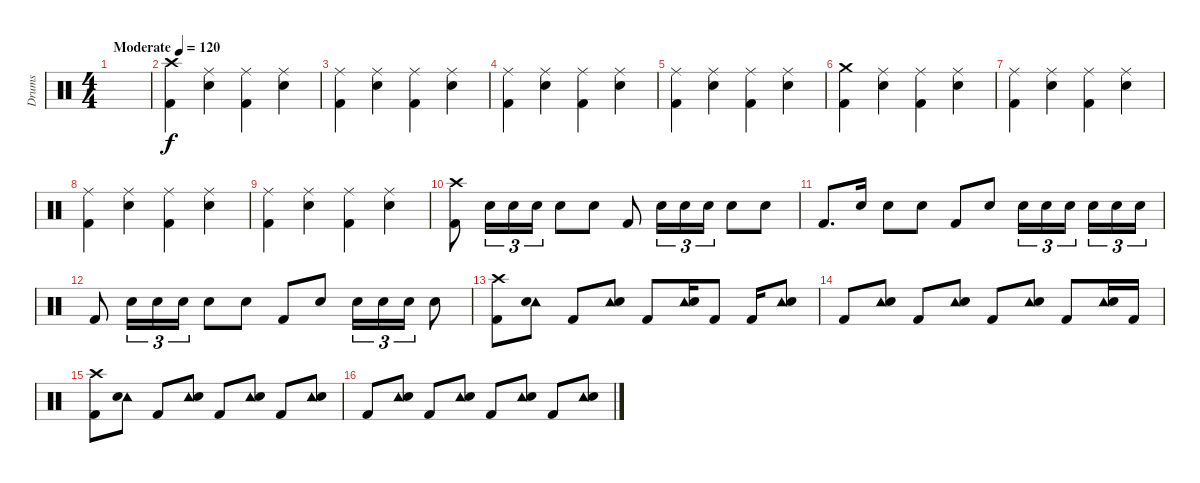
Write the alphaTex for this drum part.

\track ("Drums" "Drums") {instrument percussion}
\staff {score}
\articulation defaults
\ts (4 4)
\tempo (120 "Moderate")
\clef neutral
\ks c
|
("Crash high (hit)" "Kick (hit) 2").4 ("Ride (middle)" "Electric Snare (hit)").4 ("Ride (middle)" "Kick (hit) 2").4 ("Ride (middle)" "Electric Snare (hit)").4 |
("Ride (middle)" "Kick (hit) 2").4 ("Ride (middle)" "Electric Snare (hit)").4 ("Ride (middle)" "Kick (hit) 2").4 ("Ride (middle)" "Electric Snare (hit)").4 |
("Ride (middle)" "Kick (hit) 2").4 ("Ride (middle)" "Electric Snare (hit)").4 ("Ride (middle)" "Kick (hit) 2").4 ("Ride (middle)" "Electric Snare (hit)").4 |
("Ride (middle)" "Kick (hit) 2").4 ("Ride (middle)" "Electric Snare (hit)").4 ("Ride (middle)" "Kick (hit) 2").4 ("Ride (middle)" "Electric Snare (hit)").4 |
("Crash medium (hit)" "Kick (hit) 2").4 ("Ride (middle)" "Electric Snare (hit)").4 ("Ride (middle)" "Kick (hit) 2").4 ("Ride (middle)" "Electric Snare (hit)").4 |
("Ride (middle)" "Kick (hit) 2").4 ("Ride (middle)" "Electric Snare (hit)").4 ("Ride (middle)" "Kick (hit) 2").4 ("Ride (middle)" "Electric Snare (hit)").4 |
("Ride (middle)" "Kick (hit) 2").4 ("Ride (middle)" "Electric Snare (hit)").4 ("Ride (middle)" "Kick (hit) 2").4 ("Ride (middle)" "Electric Snare (hit)").4 |
("Ride (middle)" "Kick (hit) 2").4 ("Ride (middle)" "Electric Snare (hit)").4 ("Ride (middle)" "Kick (hit) 2").4 ("Ride (middle)" "Electric Snare (hit)").4 |
("Crash high (hit)" "Kick (hit) 2").8 "Electric Snare (hit)".16{tu (3 2)} "Electric Snare (hit)".16{tu (3 2)} "Electric Snare (hit)".16{tu (3 2)} "Electric Snare (hit)".8 "Electric Snare (hit)".8 "Kick (hit) 2".8 "Electric Snare (hit)".16{tu (3 2)} "Electric Snare (hit)".16{tu (3 2)} "Electric Snare (hit)".16{tu (3 2)} "Electric Snare (hit)".8 "Electric Snare (hit)".8 |
"Kick (hit) 2".8{d} "Electric Snare (hit)".16 "Electric Snare (hit)".8 "Electric Snare (hit)".8 "Kick (hit) 2".8 "Electric Snare (hit)".8 "Electric Snare (hit)".16{tu (3 2)} "Electric Snare (hit)".16{tu (3 2)} "Electric Snare (hit)".16{tu (3 2) beam splitsecondary} "Electric Snare (hit)".16{tu (3 2)} "Electric Snare (hit)".16{tu (3 2)} "Electric Snare (hit)".16{tu (3 2)} |
"Kick (hit) 2".8 "Electric Snare (hit)".16{tu (3 2)} "Electric Snare (hit)".16{tu (3 2)} "Electric Snare (hit)".16{tu (3 2)} "Electric Snare (hit)".8 "Electric Snare (hit)".8 "Kick (hit) 2".8 "Electric Snare (hit)".8 "Electric Snare (hit)".16{tu (3 2)} "Electric Snare (hit)".16{tu (3 2)} "Electric Snare (hit)".16{tu (3 2)} "Electric Snare (hit)".8 |
("Crash high (hit)" "Kick (hit) 2").8 ("Tambourine (hit)" "Electric Snare (hit)").8 "Kick (hit) 2".8 ("Tambourine (hit)" "Electric Snare (hit)").8 "Kick (hit) 2".8 ("Tambourine (hit)" "Electric Snare (hit)").16 "Kick (hit) 2".8 "Kick (hit) 2".16 ("Tambourine (hit)" "Electric Snare (hit)").8 |
"Kick (hit) 2".8 ("Tambourine (hit)" "Electric Snare (hit)").8 "Kick (hit) 2".8 ("Tambourine (hit)" "Electric Snare (hit)").8 "Kick (hit) 2".8 ("Tambourine (hit)" "Electric Snare (hit)").8 "Kick (hit) 2".8 ("Tambourine (hit)" "Electric Snare (hit)").16 "Kick (hit) 2".16 |
("Crash high (hit)" "Kick (hit) 2").8 ("Tambourine (hit)" "Electric Snare (hit)").8 "Kick (hit) 2".8 ("Tambourine (hit)" "Electric Snare (hit)").8 "Kick (hit) 2".8 ("Tambourine (hit)" "Electric Snare (hit)").8 "Kick (hit) 2".8 ("Tambourine (hit)" "Electric Snare (hit)").8 |
"Kick (hit) 2".8 ("Tambourine (hit)" "Electric Snare (hit)").8 "Kick (hit) 2".8 ("Tambourine (hit)" "Electric Snare (hit)").8 "Kick (hit) 2".8 ("Tambourine (hit)" "Electric Snare (hit)").8 "Kick (hit) 2".8 ("Tambourine (hit)" "Electric Snare (hit)").8
